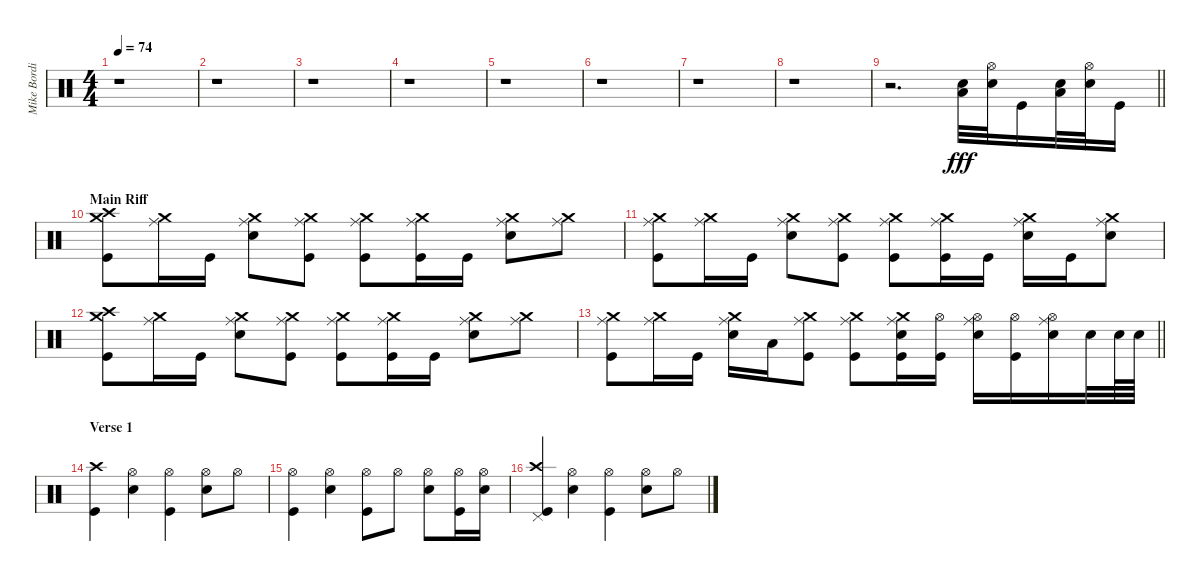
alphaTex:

\track ("Mike Bordin" "Mike Bordi") {instrument percussion}
\staff {score}
\articulation defaults
\ts (4 4)
\tempo 74
\clef neutral
\ks c
r.1{dy fff} |
r.1 |
r.1 |
r.1 |
r.1 |
r.1 |
r.1 |
r.1 |
\barLineRight lightlight
r.2{d} ("Snare (hit) 2" "Low Tom (hit)").32 ("Hi-Hat (open)" "Snare (hit) 2").32 "Kick (hit)".16 ("Snare (hit) 2" "Low Floor Tom (hit)").32 ("Hi-Hat (open)" "Snare (hit) 2").32 "Kick (hit)".16 |
\section ("" "Main Riff")
("Crash medium (hit)" "Crash high (hit)" "Kick (hit)").8 ("Crash medium (hit)" "Ride (middle)").16 "Kick (hit)".16 ("Crash medium (hit)" "Ride (middle)" "Snare (hit) 2").8 ("Crash medium (hit)" "Ride (middle)" "Kick (hit)").8 ("Crash medium (hit)" "Ride (middle)" "Kick (hit)").8 ("Crash medium (hit)" "Ride (middle)" "Kick (hit)").16 "Kick (hit)".16 ("Crash medium (hit)" "Ride (middle)" "Snare (hit) 2").8 ("Crash medium (hit)" "Ride (middle)").8 |
("Crash medium (hit)" "Ride (middle)" "Kick (hit)").8 ("Crash medium (hit)" "Ride (middle)").16 "Kick (hit)".16 ("Crash medium (hit)" "Ride (middle)" "Snare (hit) 2").8 ("Crash medium (hit)" "Ride (middle)" "Kick (hit)").8 ("Crash medium (hit)" "Ride (middle)" "Kick (hit)").8 ("Crash medium (hit)" "Ride (middle)" "Kick (hit)").16 "Kick (hit)".16 ("Crash medium (hit)" "Ride (middle)" "Snare (hit) 2").16 "Kick (hit)".16 ("Crash medium (hit)" "Ride (middle)" "Snare (hit) 2").8 |
("Crash medium (hit)" "Crash high (hit)" "Kick (hit)").8 ("Crash medium (hit)" "Ride (middle)").16 "Kick (hit)".16 ("Crash medium (hit)" "Ride (middle)" "Snare (hit) 2").8 ("Crash medium (hit)" "Ride (middle)" "Kick (hit)").8 ("Crash medium (hit)" "Ride (middle)" "Kick (hit)").8 ("Crash medium (hit)" "Ride (middle)" "Kick (hit)").16 "Kick (hit)".16 ("Crash medium (hit)" "Ride (middle)" "Snare (hit) 2").8 ("Crash medium (hit)" "Ride (middle)").8 |
\barLineRight lightlight
("Crash medium (hit)" "Ride (middle)" "Kick (hit)").8 ("Crash medium (hit)" "Ride (middle)").16 "Kick (hit)".16 ("Crash medium (hit)" "Ride (middle)" "Snare (hit) 2").16 "Low Tom (hit)".16 ("Crash medium (hit)" "Ride (middle)" "Kick (hit)").8 ("Crash medium (hit)" "Ride (middle)" "Kick (hit)").8 ("Crash medium (hit)" "Ride (middle)" "Snare (hit) 2" "Kick (hit)").16 ("Hi-Hat (open)" "Kick (hit)").16 ("Hi-Hat (open)" "Ride (middle)" "Snare (hit) 2").16 ("Hi-Hat (open)" "Kick (hit)").16 ("Hi-Hat (open)" "Ride (middle)" "Snare (hit) 2").16 "Snare (hit) 2".32 "Snare (hit) 2".64 "Snare (hit) 2".64 |
\section ("" "Verse 1")
("Crash high (hit)" "Kick (hit)").4 ("Hi-Hat (open)" "Snare (hit) 2").4 ("Hi-Hat (open)" "Kick (hit)").4 ("Hi-Hat (open)" "Snare (hit) 2").8 "Hi-Hat (open)".8 |
("Hi-Hat (open)" "Kick (hit)").4 ("Hi-Hat (open)" "Snare (hit) 2").4 ("Hi-Hat (open)" "Kick (hit)").8 "Hi-Hat (open)".8 ("Hi-Hat (open)" "Snare (hit) 2").8 ("Hi-Hat (open)" "Kick (hit)").16 ("Hi-Hat (open)" "Snare (hit) 2").16 |
("Crash high (hit)" "Pedal Hi-Hat (hit)" "Kick (hit)").4 ("Hi-Hat (open)" "Snare (hit) 2").4 ("Hi-Hat (open)" "Kick (hit)").4 ("Hi-Hat (open)" "Snare (hit) 2").8 "Hi-Hat (open)".8
